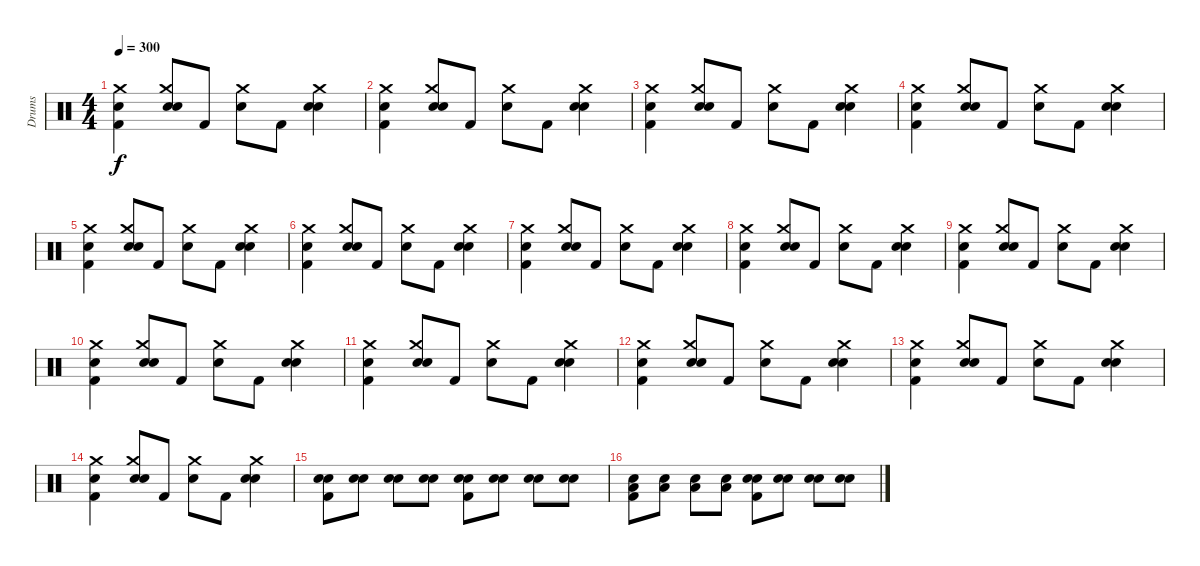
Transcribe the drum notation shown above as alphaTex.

\track ("Drums" "Drums") {instrument percussion}
\staff {score}
\articulation defaults
\ts (4 4)
\tempo 300
\clef neutral
\ks c
("Snare (hit)" "Kick (hit) 2" "Crash medium (hit)").4{dy f} ("Snare (hit)" "Crash medium (hit)" "Electric Snare (hit)").8 "Kick (hit) 2".8 ("Snare (hit)" "Crash medium (hit)").8 "Kick (hit) 2".8 ("Snare (hit)" "Crash medium (hit)" "Electric Snare (hit)").4 |
("Snare (hit)" "Kick (hit) 2" "Crash medium (hit)").4 ("Snare (hit)" "Crash medium (hit)" "Electric Snare (hit)").8 "Kick (hit) 2".8 ("Snare (hit)" "Crash medium (hit)").8 "Kick (hit) 2".8 ("Snare (hit)" "Crash medium (hit)" "Electric Snare (hit)").4 |
("Snare (hit)" "Kick (hit) 2" "Crash medium (hit)").4 ("Snare (hit)" "Crash medium (hit)" "Electric Snare (hit)").8 "Kick (hit) 2".8 ("Snare (hit)" "Crash medium (hit)").8 "Kick (hit) 2".8 ("Snare (hit)" "Crash medium (hit)" "Electric Snare (hit)").4 |
("Snare (hit)" "Kick (hit) 2" "Crash medium (hit)").4 ("Snare (hit)" "Crash medium (hit)" "Electric Snare (hit)").8 "Kick (hit) 2".8 ("Snare (hit)" "Crash medium (hit)").8 "Kick (hit) 2".8 ("Snare (hit)" "Crash medium (hit)" "Electric Snare (hit)").4 |
("Snare (hit)" "Crash medium (hit)" "Kick (hit) 2").4 ("Snare (hit)" "Crash medium (hit)" "Electric Snare (hit)").8 "Kick (hit) 2".8 ("Snare (hit)" "Crash medium (hit)").8 "Kick (hit) 2".8 ("Snare (hit)" "Crash medium (hit)" "Electric Snare (hit)").4 |
("Snare (hit)" "Crash medium (hit)" "Kick (hit) 2").4 ("Snare (hit)" "Crash medium (hit)" "Electric Snare (hit)").8 "Kick (hit) 2".8 ("Snare (hit)" "Crash medium (hit)").8 "Kick (hit) 2".8 ("Snare (hit)" "Crash medium (hit)" "Electric Snare (hit)").4 |
("Snare (hit)" "Crash medium (hit)" "Kick (hit) 2").4 ("Snare (hit)" "Crash medium (hit)" "Electric Snare (hit)").8 "Kick (hit) 2".8 ("Snare (hit)" "Crash medium (hit)").8 "Kick (hit) 2".8 ("Snare (hit)" "Crash medium (hit)" "Electric Snare (hit)").4 |
("Snare (hit)" "Crash medium (hit)" "Kick (hit) 2").4 ("Snare (hit)" "Crash medium (hit)" "Electric Snare (hit)").8 "Kick (hit) 2".8 ("Snare (hit)" "Crash medium (hit)").8 "Kick (hit) 2".8 ("Snare (hit)" "Crash medium (hit)" "Electric Snare (hit)").4 |
("Snare (hit)" "Crash medium (hit)" "Kick (hit) 2").4 ("Snare (hit)" "Crash medium (hit)" "Electric Snare (hit)").8 "Kick (hit) 2".8 ("Snare (hit)" "Crash medium (hit)").8 "Kick (hit) 2".8 ("Snare (hit)" "Crash medium (hit)" "Electric Snare (hit)").4 |
("Snare (hit)" "Crash medium (hit)" "Kick (hit) 2").4 ("Snare (hit)" "Crash medium (hit)" "Electric Snare (hit)").8 "Kick (hit) 2".8 ("Snare (hit)" "Crash medium (hit)").8 "Kick (hit) 2".8 ("Snare (hit)" "Crash medium (hit)" "Electric Snare (hit)").4 |
("Snare (hit)" "Crash medium (hit)" "Kick (hit) 2").4 ("Snare (hit)" "Crash medium (hit)" "Electric Snare (hit)").8 "Kick (hit) 2".8 ("Snare (hit)" "Crash medium (hit)").8 "Kick (hit) 2".8 ("Snare (hit)" "Crash medium (hit)" "Electric Snare (hit)").4 |
("Snare (hit)" "Crash medium (hit)" "Kick (hit) 2").4 ("Snare (hit)" "Crash medium (hit)" "Electric Snare (hit)").8 "Kick (hit) 2".8 ("Snare (hit)" "Crash medium (hit)").8 "Kick (hit) 2".8 ("Snare (hit)" "Crash medium (hit)" "Electric Snare (hit)").4 |
("Snare (hit)" "Crash medium (hit)" "Kick (hit) 2").4 ("Snare (hit)" "Crash medium (hit)" "Electric Snare (hit)").8 "Kick (hit) 2".8 ("Snare (hit)" "Crash medium (hit)").8 "Kick (hit) 2".8 ("Snare (hit)" "Crash medium (hit)" "Electric Snare (hit)").4 |
("Snare (hit)" "Crash medium (hit)" "Kick (hit) 2").4 ("Snare (hit)" "Crash medium (hit)" "Electric Snare (hit)").8 "Kick (hit) 2".8 ("Snare (hit)" "Crash medium (hit)").8 "Kick (hit) 2".8 ("Snare (hit)" "Crash medium (hit)" "Electric Snare (hit)").4 |
("Snare (hit)" "Kick (hit) 2" "Electric Snare (hit)").8 ("Snare (hit)" "Electric Snare (hit)").8 ("Snare (hit)" "Electric Snare (hit)").8 ("Snare (hit)" "Electric Snare (hit)").8 ("Snare (hit)" "Kick (hit) 2" "Electric Snare (hit)").8 ("Snare (hit)" "Electric Snare (hit)").8 ("Snare (hit)" "Electric Snare (hit)").8 ("Snare (hit)" "Electric Snare (hit)").8 |
("Snare (hit)" "Kick (hit) 2" "Low Floor Tom (hit)").8 ("Snare (hit)" "Low Floor Tom (hit)").8 ("Snare (hit)" "Low Floor Tom (hit)").8 ("Snare (hit)" "Low Floor Tom (hit)").8 ("Snare (hit)" "Kick (hit) 2" "Electric Snare (hit)").8 ("Snare (hit)" "Electric Snare (hit)").8 ("Snare (hit)" "Electric Snare (hit)").8 ("Snare (hit)" "Electric Snare (hit)").8
